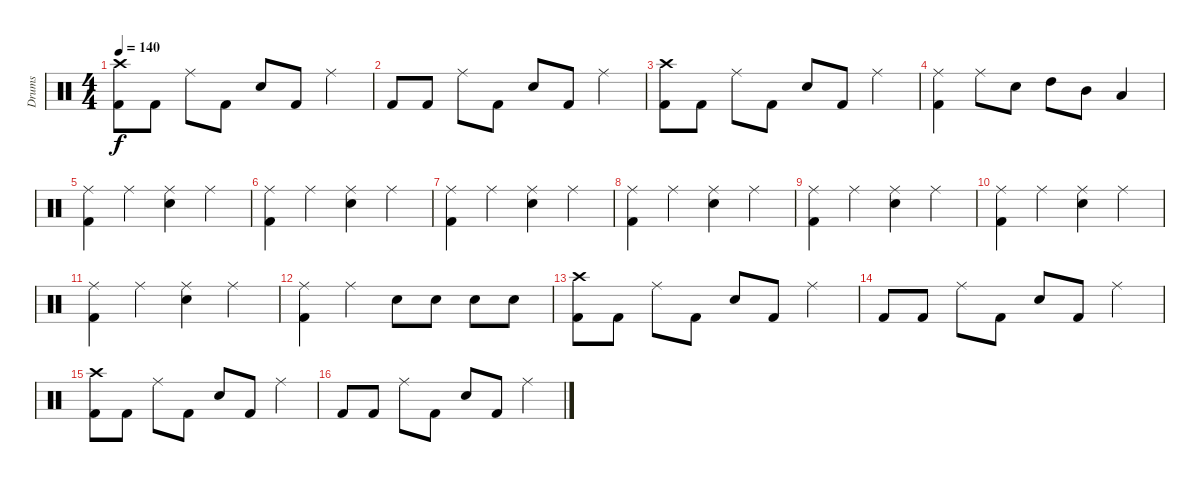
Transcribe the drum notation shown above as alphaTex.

\track ("Drums" "Drums") {instrument percussion}
\staff {score}
\articulation defaults
\ts (4 4)
\tempo 140
\clef neutral
\ks c
("Crash high (hit)" "Kick (hit) 2").8{dy f} "Kick (hit) 2".8 "Ride (middle)".8 "Kick (hit) 2".8 "Electric Snare (hit)".8 "Kick (hit) 2".8 "Ride (middle)".4 |
"Kick (hit) 2".8 "Kick (hit) 2".8 "Ride (middle)".8 "Kick (hit) 2".8 "Electric Snare (hit)".8 "Kick (hit) 2".8 "Ride (middle)".4 |
("Crash high (hit)" "Kick (hit) 2").8 "Kick (hit) 2".8 "Ride (middle)".8 "Kick (hit) 2".8 "Electric Snare (hit)".8 "Kick (hit) 2".8 "Ride (middle)".4 |
("Ride (middle)" "Kick (hit) 2").4 "Ride (middle)".8 "Electric Snare (hit)".8 "High Tom (hit)".8 "Mid Tom (hit)".8 "Low Tom (hit)".4 |
("Ride (middle)" "Kick (hit) 2").4 "Ride (middle)".4 ("Ride (middle)" "Electric Snare (hit)").4 "Ride (middle)".4 |
("Ride (middle)" "Kick (hit) 2").4 "Ride (middle)".4 ("Ride (middle)" "Electric Snare (hit)").4 "Ride (middle)".4 |
("Ride (middle)" "Kick (hit) 2").4 "Ride (middle)".4 ("Ride (middle)" "Electric Snare (hit)").4 "Ride (middle)".4 |
("Ride (middle)" "Kick (hit) 2").4 "Ride (middle)".4 ("Ride (middle)" "Electric Snare (hit)").4 "Ride (middle)".4 |
("Ride (middle)" "Kick (hit) 2").4 "Ride (middle)".4 ("Ride (middle)" "Electric Snare (hit)").4 "Ride (middle)".4 |
("Ride (middle)" "Kick (hit) 2").4 "Ride (middle)".4 ("Ride (middle)" "Electric Snare (hit)").4 "Ride (middle)".4 |
("Ride (middle)" "Kick (hit) 2").4 "Ride (middle)".4 ("Ride (middle)" "Electric Snare (hit)").4 "Ride (middle)".4 |
("Ride (middle)" "Kick (hit) 2").4 "Ride (middle)".4 "Electric Snare (hit)".8 "Electric Snare (hit)".8 "Electric Snare (hit)".8 "Electric Snare (hit)".8 |
("Crash high (hit)" "Kick (hit) 2").8 "Kick (hit) 2".8 "Ride (middle)".8 "Kick (hit) 2".8 "Electric Snare (hit)".8 "Kick (hit) 2".8 "Ride (middle)".4 |
"Kick (hit) 2".8 "Kick (hit) 2".8 "Ride (middle)".8 "Kick (hit) 2".8 "Electric Snare (hit)".8 "Kick (hit) 2".8 "Ride (middle)".4 |
("Crash high (hit)" "Kick (hit) 2").8 "Kick (hit) 2".8 "Ride (middle)".8 "Kick (hit) 2".8 "Electric Snare (hit)".8 "Kick (hit) 2".8 "Ride (middle)".4 |
"Kick (hit) 2".8 "Kick (hit) 2".8 "Ride (middle)".8 "Kick (hit) 2".8 "Electric Snare (hit)".8 "Kick (hit) 2".8 "Ride (middle)".4
